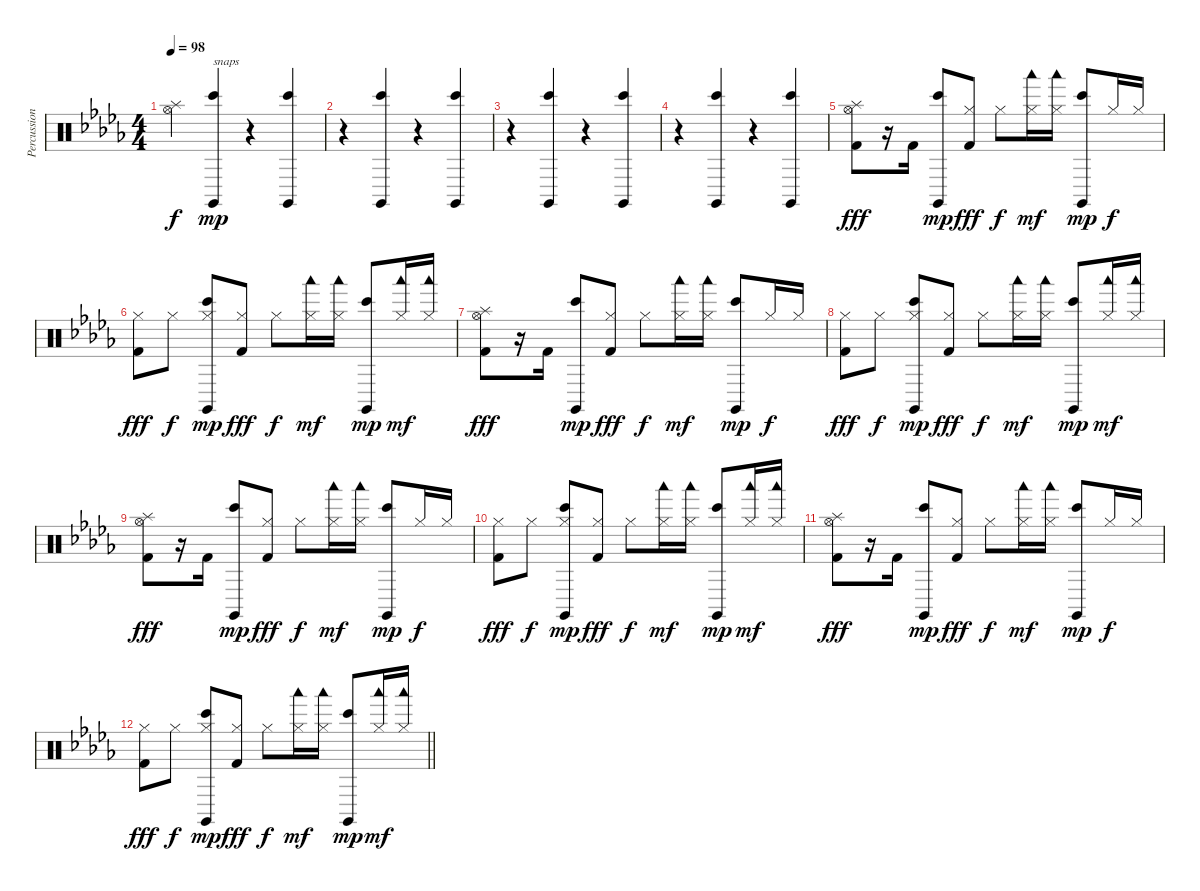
\track ("Percussion" "Percussion") {instrument percussion}
\staff {score}
\articulation defaults
\ts (4 4)
\tempo 98
\clef neutral
\ks db
("Splash (hit)" "Hi-Hat (open)").4{dy f} ("Claves (hit)" "Bongo High (hit)").4{txt "snaps" dy mp} r.4 ("Claves (hit)" "Bongo High (hit)").4 |
r.4 ("Claves (hit)" "Bongo High (hit)").4 r.4 ("Claves (hit)" "Bongo High (hit)").4 |
r.4 ("Claves (hit)" "Bongo High (hit)").4 r.4 ("Claves (hit)" "Bongo High (hit)").4 |
r.4 ("Claves (hit)" "Bongo High (hit)").4 r.4 ("Claves (hit)" "Bongo High (hit)").4 |
("Splash (hit)" "Hi-Hat (open)" "Kick (hit) 2").8{dy fff} r.16 "Kick (hit) 2".16 ("Claves (hit)" "Bongo High (hit)").8{dy mp} ("Hi-Hat (closed)" "Kick (hit) 2").8{dy fff} "Hi-Hat (closed)".8{dy f} ("Hi-Hat (closed)" "Woodblock low (hit)").16{dy mf} ("Hi-Hat (closed)" "Woodblock low (hit)").16 ("Claves (hit)" "Bongo High (hit)").8{dy mp} "Hi-Hat (closed)".16{dy f} "Hi-Hat (closed)".16 |
("Hi-Hat (closed)" "Kick (hit) 2").8{dy fff} "Hi-Hat (closed)".8{dy f} ("Hi-Hat (closed)" "Claves (hit)" "Bongo High (hit)").8{dy mp} ("Hi-Hat (closed)" "Kick (hit) 2").8{dy fff} "Hi-Hat (closed)".8{dy f} ("Hi-Hat (closed)" "Woodblock low (hit)").16{dy mf} ("Hi-Hat (closed)" "Woodblock low (hit)").16 ("Claves (hit)" "Bongo High (hit)").8{dy mp} ("Hi-Hat (closed)" "Woodblock low (hit)").16{dy mf} ("Hi-Hat (closed)" "Woodblock low (hit)").16 |
("Splash (hit)" "Hi-Hat (open)" "Kick (hit) 2").8{dy fff} r.16 "Kick (hit) 2".16 ("Claves (hit)" "Bongo High (hit)").8{dy mp} ("Hi-Hat (closed)" "Kick (hit) 2").8{dy fff} "Hi-Hat (closed)".8{dy f} ("Hi-Hat (closed)" "Woodblock low (hit)").16{dy mf} ("Hi-Hat (closed)" "Woodblock low (hit)").16 ("Claves (hit)" "Bongo High (hit)").8{dy mp} "Hi-Hat (closed)".16{dy f} "Hi-Hat (closed)".16 |
("Hi-Hat (closed)" "Kick (hit) 2").8{dy fff} "Hi-Hat (closed)".8{dy f} ("Hi-Hat (closed)" "Claves (hit)" "Bongo High (hit)").8{dy mp} ("Hi-Hat (closed)" "Kick (hit) 2").8{dy fff} "Hi-Hat (closed)".8{dy f} ("Hi-Hat (closed)" "Woodblock low (hit)").16{dy mf} ("Hi-Hat (closed)" "Woodblock low (hit)").16 ("Claves (hit)" "Bongo High (hit)").8{dy mp} ("Hi-Hat (closed)" "Woodblock low (hit)").16{dy mf} ("Hi-Hat (closed)" "Woodblock low (hit)").16 |
("Splash (hit)" "Hi-Hat (open)" "Kick (hit) 2").8{dy fff volume 0} r.16 "Kick (hit) 2".16 ("Claves (hit)" "Bongo High (hit)").8{dy mp} ("Hi-Hat (closed)" "Kick (hit) 2").8{dy fff} "Hi-Hat (closed)".8{dy f} ("Hi-Hat (closed)" "Woodblock low (hit)").16{dy mf} ("Hi-Hat (closed)" "Woodblock low (hit)").16 ("Claves (hit)" "Bongo High (hit)").8{dy mp} "Hi-Hat (closed)".16{dy f} "Hi-Hat (closed)".16 |
("Hi-Hat (closed)" "Kick (hit) 2").8{dy fff} "Hi-Hat (closed)".8{dy f} ("Hi-Hat (closed)" "Claves (hit)" "Bongo High (hit)").8{dy mp} ("Hi-Hat (closed)" "Kick (hit) 2").8{dy fff} "Hi-Hat (closed)".8{dy f} ("Hi-Hat (closed)" "Woodblock low (hit)").16{dy mf} ("Hi-Hat (closed)" "Woodblock low (hit)").16 ("Claves (hit)" "Bongo High (hit)").8{dy mp} ("Hi-Hat (closed)" "Woodblock low (hit)").16{dy mf} ("Hi-Hat (closed)" "Woodblock low (hit)").16 |
("Splash (hit)" "Hi-Hat (open)" "Kick (hit) 2").8{dy fff} r.16 "Kick (hit) 2".16 ("Claves (hit)" "Bongo High (hit)").8{dy mp} ("Hi-Hat (closed)" "Kick (hit) 2").8{dy fff} "Hi-Hat (closed)".8{dy f} ("Hi-Hat (closed)" "Woodblock low (hit)").16{dy mf} ("Hi-Hat (closed)" "Woodblock low (hit)").16 ("Claves (hit)" "Bongo High (hit)").8{dy mp} "Hi-Hat (closed)".16{dy f} "Hi-Hat (closed)".16 |
\barLineRight lightlight
("Hi-Hat (closed)" "Kick (hit) 2").8{dy fff} "Hi-Hat (closed)".8{dy f} ("Hi-Hat (closed)" "Claves (hit)" "Bongo High (hit)").8{dy mp} ("Hi-Hat (closed)" "Kick (hit) 2").8{dy fff} "Hi-Hat (closed)".8{dy f} ("Hi-Hat (closed)" "Woodblock low (hit)").16{dy mf} ("Hi-Hat (closed)" "Woodblock low (hit)").16 ("Claves (hit)" "Bongo High (hit)").8{dy mp} ("Hi-Hat (closed)" "Woodblock low (hit)").16{dy mf} ("Hi-Hat (closed)" "Woodblock low (hit)").16
